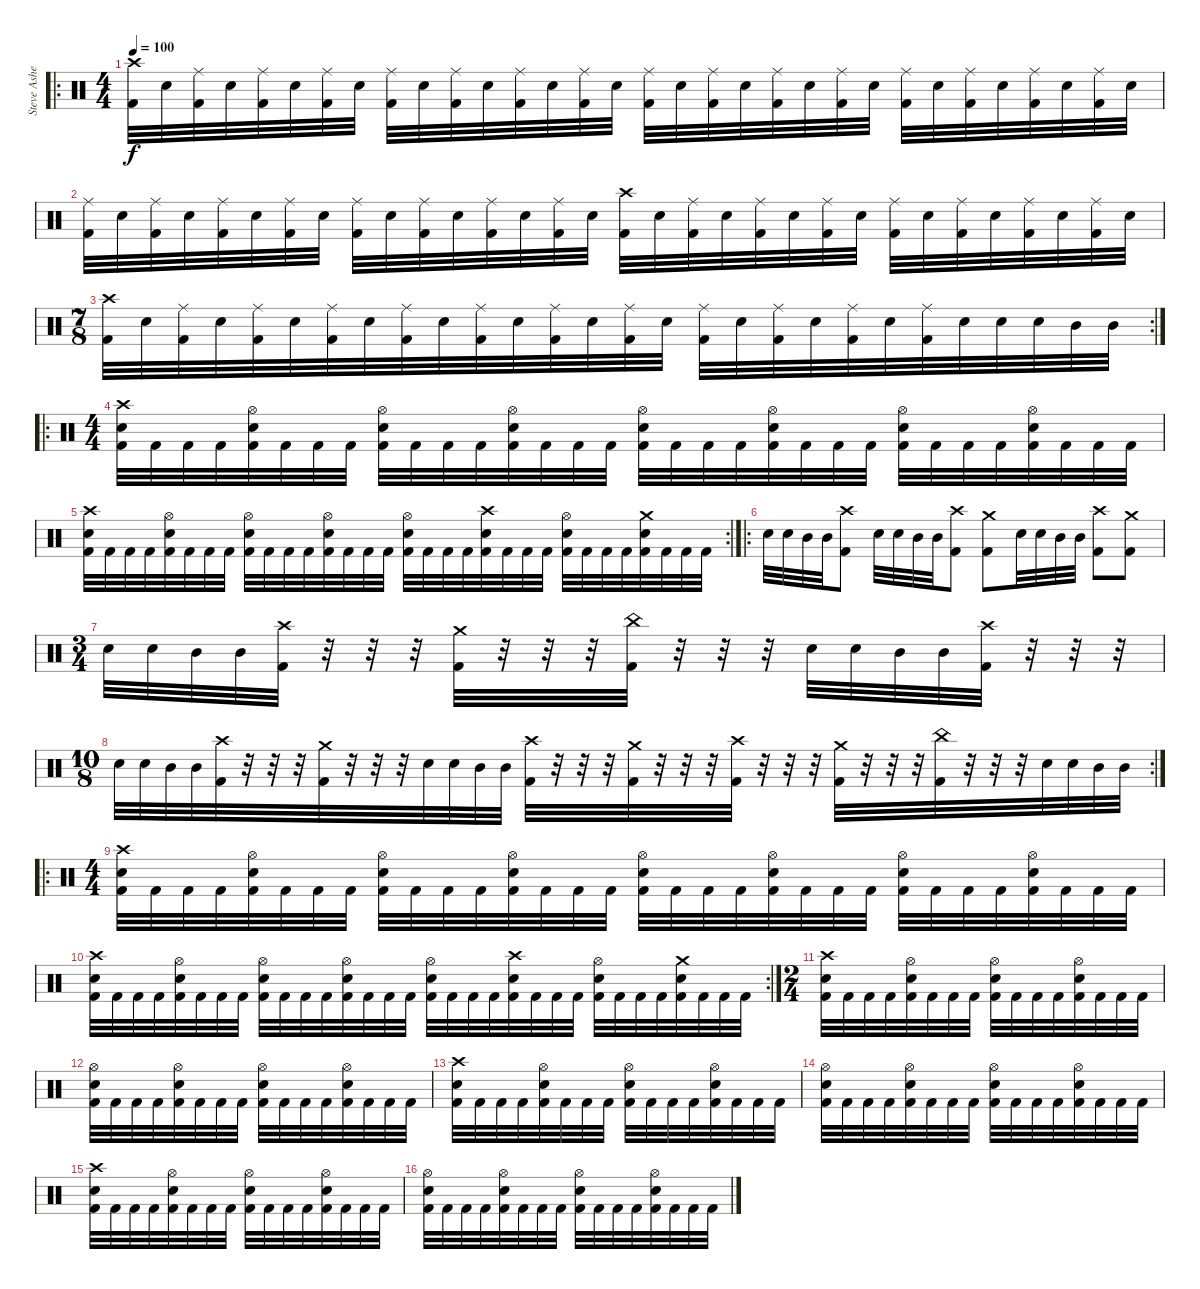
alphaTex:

\track ("Steve Asheim" "Steve Ashe") {instrument percussion}
\staff {score}
\articulation defaults
\ro
\ts (4 4)
\tempo 100
\clef neutral
\ks c
("Crash high (hit)" "Kick (hit) 2").32{dy f} "Electric Snare (hit)".32 ("Ride (middle)" "Kick (hit) 2").32 "Electric Snare (hit)".32 ("Ride (middle)" "Kick (hit) 2").32 "Electric Snare (hit)".32 ("Ride (middle)" "Kick (hit) 2").32 "Electric Snare (hit)".32 ("Ride (middle)" "Kick (hit) 2").32 "Electric Snare (hit)".32 ("Ride (middle)" "Kick (hit) 2").32 "Electric Snare (hit)".32 ("Ride (middle)" "Kick (hit) 2").32 "Electric Snare (hit)".32 ("Ride (middle)" "Kick (hit) 2").32 "Electric Snare (hit)".32 ("Ride (middle)" "Kick (hit) 2").32 "Electric Snare (hit)".32 ("Ride (middle)" "Kick (hit) 2").32 "Electric Snare (hit)".32 ("Ride (middle)" "Kick (hit) 2").32 "Electric Snare (hit)".32 ("Ride (middle)" "Kick (hit) 2").32 "Electric Snare (hit)".32 ("Ride (middle)" "Kick (hit) 2").32 "Electric Snare (hit)".32 ("Ride (middle)" "Kick (hit) 2").32 "Electric Snare (hit)".32 ("Ride (middle)" "Kick (hit) 2").32 "Electric Snare (hit)".32 ("Ride (middle)" "Kick (hit) 2").32 "Electric Snare (hit)".32 |
("Ride (middle)" "Kick (hit) 2").32 "Electric Snare (hit)".32 ("Ride (middle)" "Kick (hit) 2").32 "Electric Snare (hit)".32 ("Ride (middle)" "Kick (hit) 2").32 "Electric Snare (hit)".32 ("Ride (middle)" "Kick (hit) 2").32 "Electric Snare (hit)".32 ("Ride (middle)" "Kick (hit) 2").32 "Electric Snare (hit)".32 ("Ride (middle)" "Kick (hit) 2").32 "Electric Snare (hit)".32 ("Ride (middle)" "Kick (hit) 2").32 "Electric Snare (hit)".32 ("Ride (middle)" "Kick (hit) 2").32 "Electric Snare (hit)".32 ("Crash high (hit)" "Kick (hit) 2").32 "Electric Snare (hit)".32 ("Ride (middle)" "Kick (hit) 2").32 "Electric Snare (hit)".32 ("Ride (middle)" "Kick (hit) 2").32 "Electric Snare (hit)".32 ("Ride (middle)" "Kick (hit) 2").32 "Electric Snare (hit)".32 ("Ride (middle)" "Kick (hit) 2").32 "Electric Snare (hit)".32 ("Ride (middle)" "Kick (hit) 2").32 "Electric Snare (hit)".32 ("Ride (middle)" "Kick (hit) 2").32 "Electric Snare (hit)".32 ("Ride (middle)" "Kick (hit) 2").32 "Electric Snare (hit)".32 |
\rc 2
\ts (7 8)
("Crash high (hit)" "Kick (hit) 2").32 "Electric Snare (hit)".32 ("Ride (middle)" "Kick (hit) 2").32 "Electric Snare (hit)".32 ("Ride (middle)" "Kick (hit) 2").32 "Electric Snare (hit)".32 ("Ride (middle)" "Kick (hit) 2").32 "Electric Snare (hit)".32 ("Ride (middle)" "Kick (hit) 2").32 "Electric Snare (hit)".32 ("Ride (middle)" "Kick (hit) 2").32 "Electric Snare (hit)".32 ("Ride (middle)" "Kick (hit) 2").32 "Electric Snare (hit)".32 ("Ride (middle)" "Kick (hit) 2").32 "Electric Snare (hit)".32 ("Ride (middle)" "Kick (hit) 2").32 "Electric Snare (hit)".32 ("Ride (middle)" "Kick (hit) 2").32 "Electric Snare (hit)".32 ("Ride (middle)" "Kick (hit) 2").32 "Electric Snare (hit)".32 ("Ride (middle)" "Kick (hit) 2").32 "Electric Snare (hit)".32 "Electric Snare (hit)".32 "Electric Snare (hit)".32 "Mid Tom (hit)".32 "Mid Tom (hit)".32 |
\ro
\ts (4 4)
("Crash high (hit)" "Electric Snare (hit)" "Kick (hit) 2").32 "Kick (hit) 2".32 "Kick (hit) 2".32 "Kick (hit) 2".32 ("Hi-Hat (open)" "Electric Snare (hit)" "Kick (hit) 2").32 "Kick (hit) 2".32 "Kick (hit) 2".32 "Kick (hit) 2".32 ("Hi-Hat (open)" "Electric Snare (hit)" "Kick (hit) 2").32 "Kick (hit) 2".32 "Kick (hit) 2".32 "Kick (hit) 2".32 ("Hi-Hat (open)" "Electric Snare (hit)" "Kick (hit) 2").32 "Kick (hit) 2".32 "Kick (hit) 2".32 "Kick (hit) 2".32 ("Hi-Hat (open)" "Electric Snare (hit)" "Kick (hit) 2").32 "Kick (hit) 2".32 "Kick (hit) 2".32 "Kick (hit) 2".32 ("Hi-Hat (open)" "Electric Snare (hit)" "Kick (hit) 2").32 "Kick (hit) 2".32 "Kick (hit) 2".32 "Kick (hit) 2".32 ("Hi-Hat (open)" "Electric Snare (hit)" "Kick (hit) 2").32 "Kick (hit) 2".32 "Kick (hit) 2".32 "Kick (hit) 2".32 ("Hi-Hat (open)" "Electric Snare (hit)" "Kick (hit) 2").32 "Kick (hit) 2".32 "Kick (hit) 2".32 "Kick (hit) 2".32 |
\rc 2
("Crash high (hit)" "Electric Snare (hit)" "Kick (hit) 2").32 "Kick (hit) 2".32 "Kick (hit) 2".32 "Kick (hit) 2".32 ("Hi-Hat (open)" "Electric Snare (hit)" "Kick (hit) 2").32 "Kick (hit) 2".32 "Kick (hit) 2".32 "Kick (hit) 2".32 ("Hi-Hat (open)" "Electric Snare (hit)" "Kick (hit) 2").32 "Kick (hit) 2".32 "Kick (hit) 2".32 "Kick (hit) 2".32 ("Hi-Hat (open)" "Electric Snare (hit)" "Kick (hit) 2").32 "Kick (hit) 2".32 "Kick (hit) 2".32 "Kick (hit) 2".32 ("Hi-Hat (open)" "Electric Snare (hit)" "Kick (hit) 2").32 "Kick (hit) 2".32 "Kick (hit) 2".32 "Kick (hit) 2".32 ("Crash high (hit)" "Electric Snare (hit)" "Kick (hit) 2").32 "Kick (hit) 2".32 "Kick (hit) 2".32 "Kick (hit) 2".32 ("Hi-Hat (open)" "Electric Snare (hit)" "Kick (hit) 2").32 "Kick (hit) 2".32 "Kick (hit) 2".32 "Kick (hit) 2".32 ("Crash medium (hit)" "Electric Snare (hit)" "Kick (hit) 2").32 "Kick (hit) 2".32 "Kick (hit) 2".32 "Kick (hit) 2".32 |
\ro "Electric Snare (hit)".32 "Electric Snare (hit)".32 "Mid Tom (hit)".32 "Mid Tom (hit)".32
("Crash high (hit)" "Kick (hit) 2").8 "Electric Snare (hit)".32 "Electric Snare (hit)".32 "Mid Tom (hit)".32 "Mid Tom (hit)".32 ("Crash high (hit)" "Kick (hit) 2").8 ("Crash medium (hit)" "Kick (hit) 2").8 "Electric Snare (hit)".32 "Electric Snare (hit)".32 "Mid Tom (hit)".32 "Mid Tom (hit)".32 ("Crash high (hit)" "Kick (hit) 2").8 ("Crash medium (hit)" "Kick (hit) 2").8 |
\ts (3 4)
"Electric Snare (hit)".32 "Electric Snare (hit)".32 "Mid Tom (hit)".32 "Mid Tom (hit)".32 ("Crash high (hit)" "Kick (hit) 2").32 r.32 r.32 r.32 ("Crash medium (hit)" "Kick (hit) 2").32 r.32 r.32 r.32 ("China (hit)" "Kick (hit) 2").32 r.32 r.32 r.32 "Electric Snare (hit)".32 "Electric Snare (hit)".32 "Mid Tom (hit)".32 "Mid Tom (hit)".32 ("Crash high (hit)" "Kick (hit) 2").32 r.32 r.32 r.32 |
\rc 2
\ts (10 8)
"Electric Snare (hit)".32 "Electric Snare (hit)".32 "Mid Tom (hit)".32 "Mid Tom (hit)".32 ("Crash high (hit)" "Kick (hit) 2").32 r.32 r.32 r.32 ("Crash medium (hit)" "Kick (hit) 2").32 r.32 r.32 r.32 "Electric Snare (hit)".32 "Electric Snare (hit)".32 "Mid Tom (hit)".32 "Mid Tom (hit)".32 ("Crash high (hit)" "Kick (hit) 2").32 r.32 r.32 r.32 ("Crash medium (hit)" "Kick (hit) 2").32 r.32 r.32 r.32 ("Crash high (hit)" "Kick (hit) 2").32 r.32 r.32 r.32 ("Crash medium (hit)" "Kick (hit) 2").32 r.32 r.32 r.32 ("China (hit)" "Kick (hit) 2").32 r.32 r.32 r.32 "Electric Snare (hit)".32 "Electric Snare (hit)".32 "Mid Tom (hit)".32 "Mid Tom (hit)".32 |
\ro
\ts (4 4)
("Crash high (hit)" "Electric Snare (hit)" "Kick (hit) 2").32 "Kick (hit) 2".32 "Kick (hit) 2".32 "Kick (hit) 2".32 ("Hi-Hat (open)" "Electric Snare (hit)" "Kick (hit) 2").32 "Kick (hit) 2".32 "Kick (hit) 2".32 "Kick (hit) 2".32 ("Hi-Hat (open)" "Electric Snare (hit)" "Kick (hit) 2").32 "Kick (hit) 2".32 "Kick (hit) 2".32 "Kick (hit) 2".32 ("Hi-Hat (open)" "Electric Snare (hit)" "Kick (hit) 2").32 "Kick (hit) 2".32 "Kick (hit) 2".32 "Kick (hit) 2".32 ("Hi-Hat (open)" "Electric Snare (hit)" "Kick (hit) 2").32 "Kick (hit) 2".32 "Kick (hit) 2".32 "Kick (hit) 2".32 ("Hi-Hat (open)" "Electric Snare (hit)" "Kick (hit) 2").32 "Kick (hit) 2".32 "Kick (hit) 2".32 "Kick (hit) 2".32 ("Hi-Hat (open)" "Electric Snare (hit)" "Kick (hit) 2").32 "Kick (hit) 2".32 "Kick (hit) 2".32 "Kick (hit) 2".32 ("Hi-Hat (open)" "Electric Snare (hit)" "Kick (hit) 2").32 "Kick (hit) 2".32 "Kick (hit) 2".32 "Kick (hit) 2".32 |
\rc 2
("Crash high (hit)" "Electric Snare (hit)" "Kick (hit) 2").32 "Kick (hit) 2".32 "Kick (hit) 2".32 "Kick (hit) 2".32 ("Hi-Hat (open)" "Electric Snare (hit)" "Kick (hit) 2").32 "Kick (hit) 2".32 "Kick (hit) 2".32 "Kick (hit) 2".32 ("Hi-Hat (open)" "Electric Snare (hit)" "Kick (hit) 2").32 "Kick (hit) 2".32 "Kick (hit) 2".32 "Kick (hit) 2".32 ("Hi-Hat (open)" "Electric Snare (hit)" "Kick (hit) 2").32 "Kick (hit) 2".32 "Kick (hit) 2".32 "Kick (hit) 2".32 ("Hi-Hat (open)" "Electric Snare (hit)" "Kick (hit) 2").32 "Kick (hit) 2".32 "Kick (hit) 2".32 "Kick (hit) 2".32 ("Crash high (hit)" "Electric Snare (hit)" "Kick (hit) 2").32 "Kick (hit) 2".32 "Kick (hit) 2".32 "Kick (hit) 2".32 ("Hi-Hat (open)" "Electric Snare (hit)" "Kick (hit) 2").32 "Kick (hit) 2".32 "Kick (hit) 2".32 "Kick (hit) 2".32 ("Crash medium (hit)" "Electric Snare (hit)" "Kick (hit) 2").32 "Kick (hit) 2".32 "Kick (hit) 2".32 "Kick (hit) 2".32 |
\ts (2 4)
("Crash high (hit)" "Electric Snare (hit)" "Kick (hit) 2").32 "Kick (hit) 2".32 "Kick (hit) 2".32 "Kick (hit) 2".32 ("Hi-Hat (open)" "Electric Snare (hit)" "Kick (hit) 2").32 "Kick (hit) 2".32 "Kick (hit) 2".32 "Kick (hit) 2".32 ("Hi-Hat (open)" "Electric Snare (hit)" "Kick (hit) 2").32 "Kick (hit) 2".32 "Kick (hit) 2".32 "Kick (hit) 2".32 ("Hi-Hat (open)" "Electric Snare (hit)" "Kick (hit) 2").32 "Kick (hit) 2".32 "Kick (hit) 2".32 "Kick (hit) 2".32 |
("Hi-Hat (open)" "Electric Snare (hit)" "Kick (hit) 2").32 "Kick (hit) 2".32 "Kick (hit) 2".32 "Kick (hit) 2".32 ("Hi-Hat (open)" "Electric Snare (hit)" "Kick (hit) 2").32 "Kick (hit) 2".32 "Kick (hit) 2".32 "Kick (hit) 2".32 ("Hi-Hat (open)" "Electric Snare (hit)" "Kick (hit) 2").32 "Kick (hit) 2".32 "Kick (hit) 2".32 "Kick (hit) 2".32 ("Hi-Hat (open)" "Electric Snare (hit)" "Kick (hit) 2").32 "Kick (hit) 2".32 "Kick (hit) 2".32 "Kick (hit) 2".32 |
("Crash high (hit)" "Electric Snare (hit)" "Kick (hit) 2").32 "Kick (hit) 2".32 "Kick (hit) 2".32 "Kick (hit) 2".32 ("Hi-Hat (open)" "Electric Snare (hit)" "Kick (hit) 2").32 "Kick (hit) 2".32 "Kick (hit) 2".32 "Kick (hit) 2".32 ("Hi-Hat (open)" "Electric Snare (hit)" "Kick (hit) 2").32 "Kick (hit) 2".32 "Kick (hit) 2".32 "Kick (hit) 2".32 ("Hi-Hat (open)" "Electric Snare (hit)" "Kick (hit) 2").32 "Kick (hit) 2".32 "Kick (hit) 2".32 "Kick (hit) 2".32 |
("Hi-Hat (open)" "Electric Snare (hit)" "Kick (hit) 2").32 "Kick (hit) 2".32 "Kick (hit) 2".32 "Kick (hit) 2".32 ("Hi-Hat (open)" "Electric Snare (hit)" "Kick (hit) 2").32 "Kick (hit) 2".32 "Kick (hit) 2".32 "Kick (hit) 2".32 ("Hi-Hat (open)" "Electric Snare (hit)" "Kick (hit) 2").32 "Kick (hit) 2".32 "Kick (hit) 2".32 "Kick (hit) 2".32 ("Hi-Hat (open)" "Electric Snare (hit)" "Kick (hit) 2").32 "Kick (hit) 2".32 "Kick (hit) 2".32 "Kick (hit) 2".32 |
("Crash high (hit)" "Electric Snare (hit)" "Kick (hit) 2").32 "Kick (hit) 2".32 "Kick (hit) 2".32 "Kick (hit) 2".32 ("Hi-Hat (open)" "Electric Snare (hit)" "Kick (hit) 2").32 "Kick (hit) 2".32 "Kick (hit) 2".32 "Kick (hit) 2".32 ("Hi-Hat (open)" "Electric Snare (hit)" "Kick (hit) 2").32 "Kick (hit) 2".32 "Kick (hit) 2".32 "Kick (hit) 2".32 ("Hi-Hat (open)" "Electric Snare (hit)" "Kick (hit) 2").32 "Kick (hit) 2".32 "Kick (hit) 2".32 "Kick (hit) 2".32 |
("Hi-Hat (open)" "Electric Snare (hit)" "Kick (hit) 2").32 "Kick (hit) 2".32 "Kick (hit) 2".32 "Kick (hit) 2".32 ("Hi-Hat (open)" "Electric Snare (hit)" "Kick (hit) 2").32 "Kick (hit) 2".32 "Kick (hit) 2".32 "Kick (hit) 2".32 ("Hi-Hat (open)" "Electric Snare (hit)" "Kick (hit) 2").32 "Kick (hit) 2".32 "Kick (hit) 2".32 "Kick (hit) 2".32 ("Hi-Hat (open)" "Electric Snare (hit)" "Kick (hit) 2").32 "Kick (hit) 2".32 "Kick (hit) 2".32 "Kick (hit) 2".32
